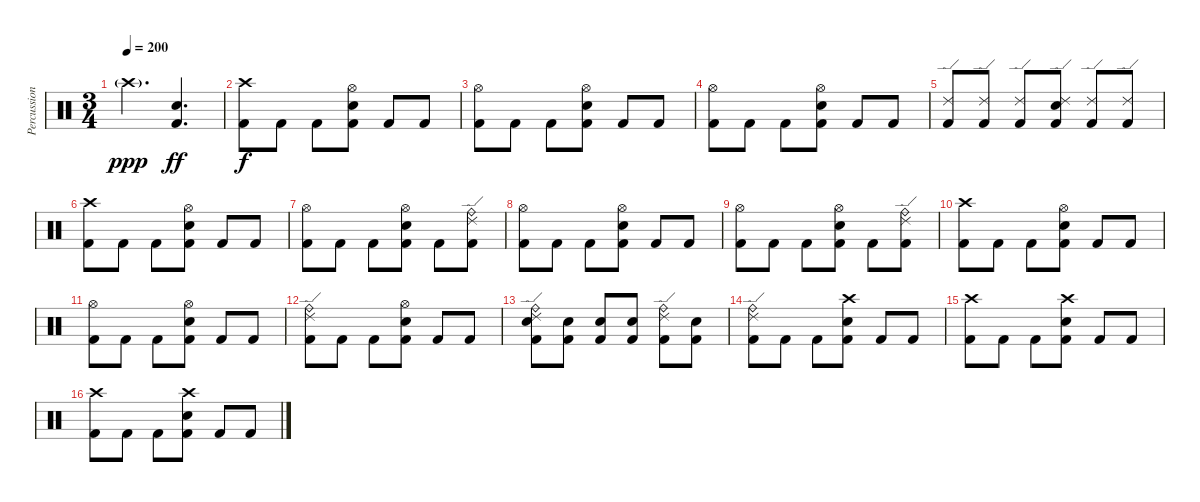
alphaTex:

\track ("Percussion" "Percussion") {instrument percussion}
\staff {score}
\articulation defaults
\ts (3 4)
\tempo 200
\clef neutral
\ks c "Crash high (hit)"{g}.4{d dy ppp}
("Electric Snare (hit)" "Kick (hit) 2").4{d dy ff} |
("Crash high (hit)" "Kick (hit) 2").8{dy f} "Kick (hit) 2".8 "Kick (hit) 2".8 ("Hi-Hat (open)" "Electric Snare (hit)" "Kick (hit) 2").8 "Kick (hit) 2".8 "Kick (hit) 2".8 |
("Hi-Hat (open)" "Kick (hit) 2").8 "Kick (hit) 2".8 "Kick (hit) 2".8 ("Hi-Hat (open)" "Electric Snare (hit)" "Kick (hit) 2").8 "Kick (hit) 2".8 "Kick (hit) 2".8 |
("Hi-Hat (open)" "Kick (hit) 2").8 "Kick (hit) 2".8 "Kick (hit) 2".8 ("Hi-Hat (open)" "Electric Snare (hit)" "Kick (hit) 2").8 "Kick (hit) 2".8 "Kick (hit) 2".8 |
("Ride (edge) 2" "Kick (hit) 2").8 ("Ride (edge) 2" "Kick (hit) 2").8 ("Ride (edge) 2" "Kick (hit) 2").8 ("Ride (edge) 2" "Electric Snare (hit)" "Kick (hit) 2").8 ("Ride (edge) 2" "Kick (hit) 2").8 ("Ride (edge) 2" "Kick (hit) 2").8 |
("Crash high (hit)" "Kick (hit) 2").8 "Kick (hit) 2".8 "Kick (hit) 2".8 ("Hi-Hat (open)" "Electric Snare (hit)" "Kick (hit) 2").8 "Kick (hit) 2".8 "Kick (hit) 2".8 |
("Hi-Hat (open)" "Kick (hit) 2").8 "Kick (hit) 2".8 "Kick (hit) 2".8 ("Hi-Hat (open)" "Electric Snare (hit)" "Kick (hit) 2").8 "Kick (hit) 2".8 ("Ride (edge) 2" "Ride (bell)" "Kick (hit) 2").8 |
("Hi-Hat (open)" "Kick (hit) 2").8 "Kick (hit) 2".8 "Kick (hit) 2".8 ("Hi-Hat (open)" "Electric Snare (hit)" "Kick (hit) 2").8 "Kick (hit) 2".8 "Kick (hit) 2".8 |
("Hi-Hat (open)" "Kick (hit) 2").8 "Kick (hit) 2".8 "Kick (hit) 2".8 ("Hi-Hat (open)" "Electric Snare (hit)" "Kick (hit) 2").8 "Kick (hit) 2".8 ("Ride (edge) 2" "Ride (bell)" "Kick (hit) 2").8 |
("Crash high (hit)" "Kick (hit) 2").8 "Kick (hit) 2".8 "Kick (hit) 2".8 ("Hi-Hat (open)" "Electric Snare (hit)" "Kick (hit) 2").8 "Kick (hit) 2".8 "Kick (hit) 2".8 |
("Hi-Hat (open)" "Kick (hit) 2").8 "Kick (hit) 2".8 "Kick (hit) 2".8 ("Hi-Hat (open)" "Electric Snare (hit)" "Kick (hit) 2").8 "Kick (hit) 2".8 "Kick (hit) 2".8 |
("Ride (edge) 2" "Ride (bell)" "Kick (hit) 2").8 "Kick (hit) 2".8 "Kick (hit) 2".8 ("Hi-Hat (open)" "Electric Snare (hit)" "Kick (hit) 2").8 "Kick (hit) 2".8 "Kick (hit) 2".8 |
("Ride (edge) 2" "Ride (bell)" "Electric Snare (hit)" "Kick (hit) 2").8 ("Electric Snare (hit)" "Kick (hit) 2").8 ("Electric Snare (hit)" "Kick (hit) 2").8 ("Electric Snare (hit)" "Kick (hit) 2").8 ("Ride (edge) 2" "Ride (bell)" "Kick (hit) 2").8 ("Electric Snare (hit)" "Kick (hit) 2").8 |
("Ride (edge) 2" "Ride (bell)" "Kick (hit) 2").8 "Kick (hit) 2".8 "Kick (hit) 2".8 ("Crash high (hit)" "Electric Snare (hit)" "Kick (hit) 2").8 "Kick (hit) 2".8 "Kick (hit) 2".8 |
("Crash high (hit)" "Kick (hit) 2").8 "Kick (hit) 2".8 "Kick (hit) 2".8 ("Crash high (hit)" "Electric Snare (hit)" "Kick (hit) 2").8 "Kick (hit) 2".8 "Kick (hit) 2".8 |
("Crash high (hit)" "Kick (hit) 2").8 "Kick (hit) 2".8 "Kick (hit) 2".8 ("Crash high (hit)" "Electric Snare (hit)" "Kick (hit) 2").8 "Kick (hit) 2".8 "Kick (hit) 2".8
